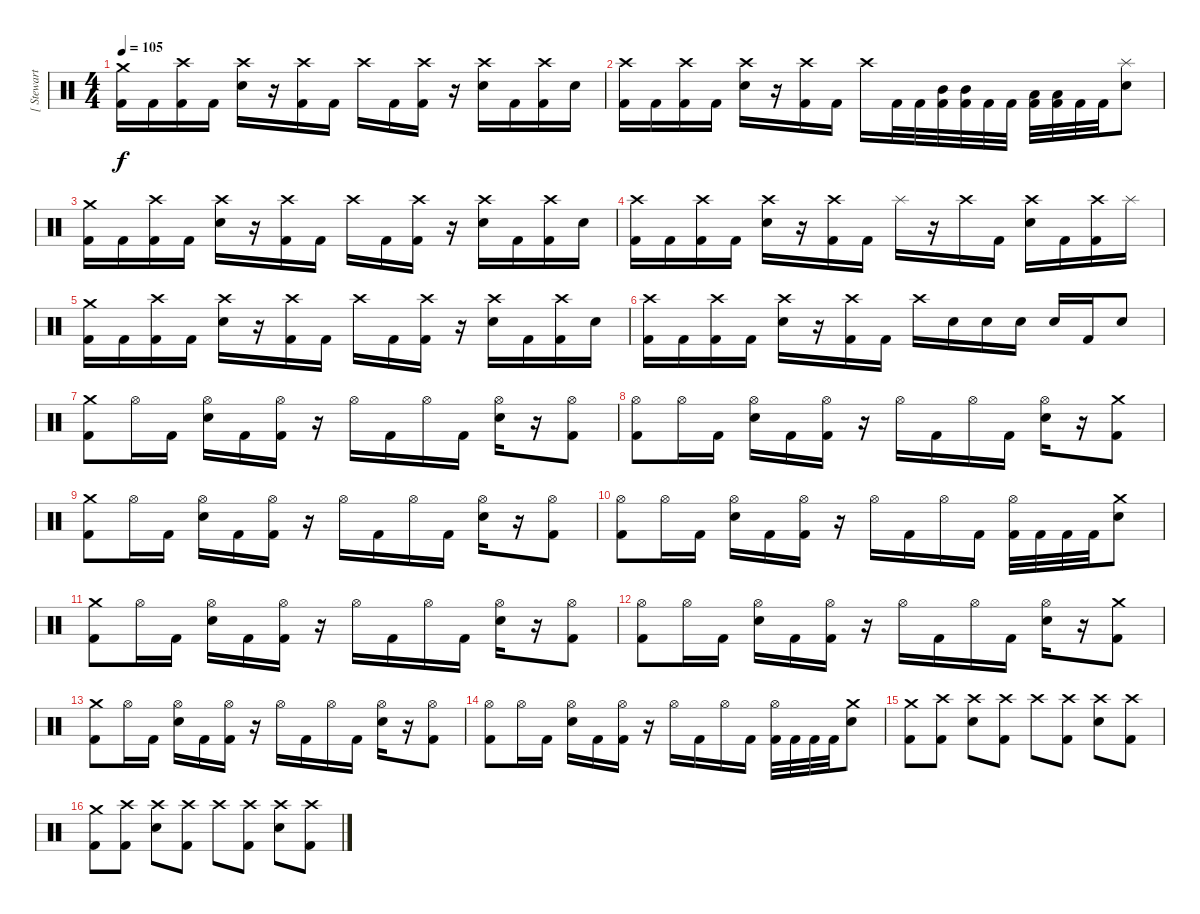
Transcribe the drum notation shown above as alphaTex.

\track ("[ Stewart ]" "[ Stewart ") {instrument percussion}
\staff {score}
\articulation defaults
\ts (4 4)
\tempo 105
\clef neutral
\ks c
("Kick (hit) 2" "Crash medium (hit)").16{dy f} "Kick (hit) 2".16 ("Kick (hit) 2" "Crash high (hit)").16 "Kick (hit) 2".16 ("Electric Snare (hit)" "Crash high (hit)").16 r.16 ("Kick (hit) 2" "Crash high (hit)").16 "Kick (hit) 2".16 "Crash high (hit)".16 "Kick (hit) 2".16 ("Kick (hit) 2" "Crash high (hit)").16 r.16 ("Electric Snare (hit)" "Crash high (hit)").16 "Kick (hit) 2".16 ("Kick (hit) 2" "Crash high (hit)").16 "Electric Snare (hit)".16 |
("Kick (hit) 2" "Crash high (hit)").16 "Kick (hit) 2".16 ("Kick (hit) 2" "Crash high (hit)").16 "Kick (hit) 2".16 ("Electric Snare (hit)" "Crash high (hit)").16 r.16 ("Kick (hit) 2" "Crash high (hit)").16 "Kick (hit) 2".16 "Crash high (hit)".16 "Kick (hit) 2".32 "Kick (hit) 2".32 ("Mid Tom (hit)" "Kick (hit) 2").32 ("Mid Tom (hit)" "Kick (hit) 2").32 "Kick (hit) 2".32 "Kick (hit) 2".32 ("Low Tom (hit)" "Kick (hit) 2").32 ("Low Tom (hit)" "Kick (hit) 2").32 "Kick (hit) 2".32 "Kick (hit) 2".32 ("Electric Snare (hit)" "Splash (hit)").8 |
("Kick (hit) 2" "Crash medium (hit)").16 "Kick (hit) 2".16 ("Kick (hit) 2" "Crash high (hit)").16 "Kick (hit) 2".16 ("Electric Snare (hit)" "Crash high (hit)").16 r.16 ("Kick (hit) 2" "Crash high (hit)").16 "Kick (hit) 2".16 "Crash high (hit)".16 "Kick (hit) 2".16 ("Kick (hit) 2" "Crash high (hit)").16 r.16 ("Electric Snare (hit)" "Crash high (hit)").16 "Kick (hit) 2".16 ("Kick (hit) 2" "Crash high (hit)").16 "Electric Snare (hit)".16 |
("Kick (hit) 2" "Crash high (hit)").16 "Kick (hit) 2".16 ("Kick (hit) 2" "Crash high (hit)").16 "Kick (hit) 2".16 ("Electric Snare (hit)" "Crash high (hit)").16 r.16 ("Kick (hit) 2" "Crash high (hit)").16 "Kick (hit) 2".16 "Splash (hit)".16 r.16 "Crash high (hit)".16 "Kick (hit) 2".16 ("Electric Snare (hit)" "Crash high (hit)").16 "Kick (hit) 2".16 ("Kick (hit) 2" "Crash high (hit)").16 "Splash (hit)".16 |
("Kick (hit) 2" "Crash medium (hit)").16 "Kick (hit) 2".16 ("Kick (hit) 2" "Crash high (hit)").16 "Kick (hit) 2".16 ("Electric Snare (hit)" "Crash high (hit)").16 r.16 ("Kick (hit) 2" "Crash high (hit)").16 "Kick (hit) 2".16 "Crash high (hit)".16 "Kick (hit) 2".16 ("Kick (hit) 2" "Crash high (hit)").16 r.16 ("Electric Snare (hit)" "Crash high (hit)").16 "Kick (hit) 2".16 ("Kick (hit) 2" "Crash high (hit)").16 "Electric Snare (hit)".16 |
("Kick (hit) 2" "Crash high (hit)").16 "Kick (hit) 2".16 ("Kick (hit) 2" "Crash high (hit)").16 "Kick (hit) 2".16 ("Electric Snare (hit)" "Crash high (hit)").16 r.16 ("Kick (hit) 2" "Crash high (hit)").16 "Kick (hit) 2".16 "Crash high (hit)".16 "Electric Snare (hit)".16 "Electric Snare (hit)".16 "Electric Snare (hit)".16 "Electric Snare (hit)".16 "Kick (hit) 2".16 "Electric Snare (hit)".8 |
("Kick (hit) 2" "Crash medium (hit)").8 "Hi-Hat (open)".16 "Kick (hit) 2".16 ("Electric Snare (hit)" "Hi-Hat (open)").16 "Kick (hit) 2".16 ("Kick (hit) 2" "Hi-Hat (open)").16 r.16 "Hi-Hat (open)".16 "Kick (hit) 2".16 "Hi-Hat (open)".16 "Kick (hit) 2".16 ("Electric Snare (hit)" "Hi-Hat (open)").16 r.16 ("Kick (hit) 2" "Hi-Hat (open)").8 |
("Kick (hit) 2" "Hi-Hat (open)").8 "Hi-Hat (open)".16 "Kick (hit) 2".16 ("Electric Snare (hit)" "Hi-Hat (open)").16 "Kick (hit) 2".16 ("Kick (hit) 2" "Hi-Hat (open)").16 r.16 "Hi-Hat (open)".16 "Kick (hit) 2".16 "Hi-Hat (open)".16 "Kick (hit) 2".16 ("Electric Snare (hit)" "Hi-Hat (open)").16 r.16 ("Kick (hit) 2" "Crash medium (hit)").8 |
("Kick (hit) 2" "Crash medium (hit)").8 "Hi-Hat (open)".16 "Kick (hit) 2".16 ("Electric Snare (hit)" "Hi-Hat (open)").16 "Kick (hit) 2".16 ("Kick (hit) 2" "Hi-Hat (open)").16 r.16 "Hi-Hat (open)".16 "Kick (hit) 2".16 "Hi-Hat (open)".16 "Kick (hit) 2".16 ("Electric Snare (hit)" "Hi-Hat (open)").16 r.16 ("Kick (hit) 2" "Hi-Hat (open)").8 |
("Kick (hit) 2" "Hi-Hat (open)").8 "Hi-Hat (open)".16 "Kick (hit) 2".16 ("Electric Snare (hit)" "Hi-Hat (open)").16 "Kick (hit) 2".16 ("Kick (hit) 2" "Hi-Hat (open)").16 r.16 "Hi-Hat (open)".16 "Kick (hit) 2".16 "Hi-Hat (open)".16 "Kick (hit) 2".16 ("Kick (hit) 2" "Hi-Hat (open)").32 "Kick (hit) 2".32 "Kick (hit) 2".32 "Kick (hit) 2".32 ("Electric Snare (hit)" "Crash medium (hit)").8 |
("Kick (hit) 2" "Crash medium (hit)").8 "Hi-Hat (open)".16 "Kick (hit) 2".16 ("Electric Snare (hit)" "Hi-Hat (open)").16 "Kick (hit) 2".16 ("Kick (hit) 2" "Hi-Hat (open)").16 r.16 "Hi-Hat (open)".16 "Kick (hit) 2".16 "Hi-Hat (open)".16 "Kick (hit) 2".16 ("Electric Snare (hit)" "Hi-Hat (open)").16 r.16 ("Kick (hit) 2" "Hi-Hat (open)").8 |
("Kick (hit) 2" "Hi-Hat (open)").8 "Hi-Hat (open)".16 "Kick (hit) 2".16 ("Electric Snare (hit)" "Hi-Hat (open)").16 "Kick (hit) 2".16 ("Kick (hit) 2" "Hi-Hat (open)").16 r.16 "Hi-Hat (open)".16 "Kick (hit) 2".16 "Hi-Hat (open)".16 "Kick (hit) 2".16 ("Electric Snare (hit)" "Hi-Hat (open)").16 r.16 ("Kick (hit) 2" "Crash medium (hit)").8 |
("Kick (hit) 2" "Crash medium (hit)").8 "Hi-Hat (open)".16 "Kick (hit) 2".16 ("Electric Snare (hit)" "Hi-Hat (open)").16 "Kick (hit) 2".16 ("Kick (hit) 2" "Hi-Hat (open)").16 r.16 "Hi-Hat (open)".16 "Kick (hit) 2".16 "Hi-Hat (open)".16 "Kick (hit) 2".16 ("Electric Snare (hit)" "Hi-Hat (open)").16 r.16 ("Kick (hit) 2" "Hi-Hat (open)").8 |
("Kick (hit) 2" "Hi-Hat (open)").8 "Hi-Hat (open)".16 "Kick (hit) 2".16 ("Electric Snare (hit)" "Hi-Hat (open)").16 "Kick (hit) 2".16 ("Kick (hit) 2" "Hi-Hat (open)").16 r.16 "Hi-Hat (open)".16 "Kick (hit) 2".16 "Hi-Hat (open)".16 "Kick (hit) 2".16 ("Kick (hit) 2" "Hi-Hat (open)").32 "Kick (hit) 2".32 "Kick (hit) 2".32 "Kick (hit) 2".32 ("Electric Snare (hit)" "Crash medium (hit)").8 |
("Kick (hit) 2" "Crash medium (hit)").8 ("Kick (hit) 2" "Crash high (hit)").8 ("Electric Snare (hit)" "Crash high (hit)").8 ("Kick (hit) 2" "Crash high (hit)").8 "Crash high (hit)".8 ("Kick (hit) 2" "Crash high (hit)").8 ("Electric Snare (hit)" "Crash high (hit)").8 ("Kick (hit) 2" "Crash high (hit)").8 |
("Kick (hit) 2" "Crash medium (hit)").8 ("Kick (hit) 2" "Crash high (hit)").8 ("Electric Snare (hit)" "Crash high (hit)").8 ("Kick (hit) 2" "Crash high (hit)").8 "Crash high (hit)".8 ("Kick (hit) 2" "Crash high (hit)").8 ("Electric Snare (hit)" "Crash high (hit)").8 ("Kick (hit) 2" "Crash high (hit)").8
